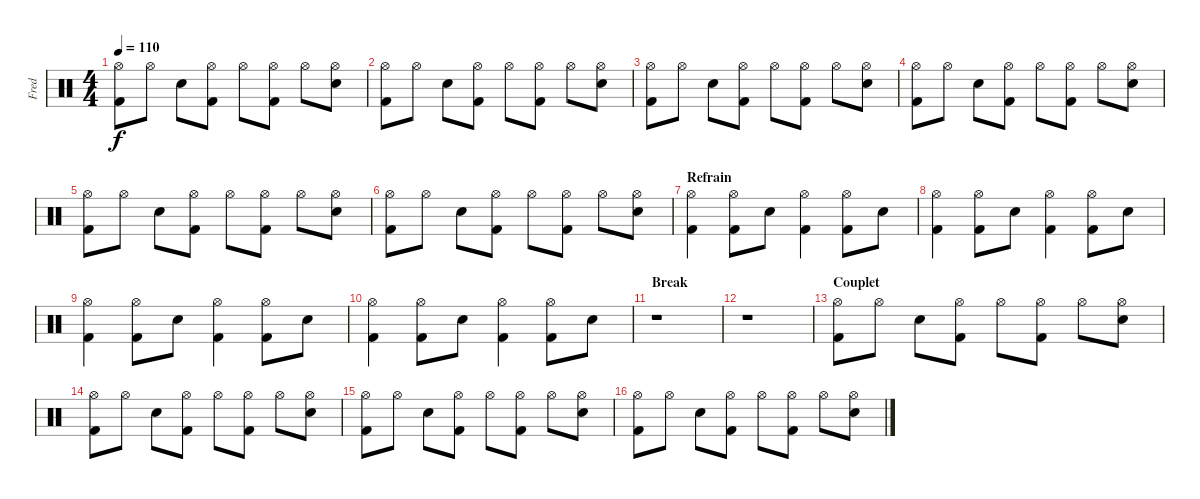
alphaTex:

\track ("Fred" "Fred") {instrument percussion}
\staff {score}
\articulation defaults
\ts (4 4)
\tempo 110
\clef neutral
\ks c
("Hi-Hat (open)" "Kick (hit) 2").8{dy f} "Hi-Hat (open)".8 "Electric Snare (hit)".8 ("Hi-Hat (open)" "Kick (hit) 2").8 "Hi-Hat (open)".8 ("Hi-Hat (open)" "Kick (hit) 2").8 "Hi-Hat (open)".8 ("Hi-Hat (open)" "Electric Snare (hit)").8 |
("Hi-Hat (open)" "Kick (hit) 2").8 "Hi-Hat (open)".8 "Electric Snare (hit)".8 ("Hi-Hat (open)" "Kick (hit) 2").8 "Hi-Hat (open)".8 ("Hi-Hat (open)" "Kick (hit) 2").8 "Hi-Hat (open)".8 ("Hi-Hat (open)" "Electric Snare (hit)").8 |
("Hi-Hat (open)" "Kick (hit) 2").8 "Hi-Hat (open)".8 "Electric Snare (hit)".8 ("Hi-Hat (open)" "Kick (hit) 2").8 "Hi-Hat (open)".8 ("Hi-Hat (open)" "Kick (hit) 2").8 "Hi-Hat (open)".8 ("Hi-Hat (open)" "Electric Snare (hit)").8 |
("Hi-Hat (open)" "Kick (hit) 2").8 "Hi-Hat (open)".8 "Electric Snare (hit)".8 ("Hi-Hat (open)" "Kick (hit) 2").8 "Hi-Hat (open)".8 ("Hi-Hat (open)" "Kick (hit) 2").8 "Hi-Hat (open)".8 ("Hi-Hat (open)" "Electric Snare (hit)").8 |
("Hi-Hat (open)" "Kick (hit) 2").8 "Hi-Hat (open)".8 "Electric Snare (hit)".8 ("Hi-Hat (open)" "Kick (hit) 2").8 "Hi-Hat (open)".8 ("Hi-Hat (open)" "Kick (hit) 2").8 "Hi-Hat (open)".8 ("Hi-Hat (open)" "Electric Snare (hit)").8 |
("Hi-Hat (open)" "Kick (hit) 2").8 "Hi-Hat (open)".8 "Electric Snare (hit)".8 ("Hi-Hat (open)" "Kick (hit) 2").8 "Hi-Hat (open)".8 ("Hi-Hat (open)" "Kick (hit) 2").8 "Hi-Hat (open)".8 ("Hi-Hat (open)" "Electric Snare (hit)").8 |
\section ("" "Refrain")
("Hi-Hat (open)" "Kick (hit) 2").4 ("Hi-Hat (open)" "Kick (hit) 2").8 "Electric Snare (hit)".8 ("Hi-Hat (open)" "Kick (hit) 2").4 ("Hi-Hat (open)" "Kick (hit) 2").8 "Electric Snare (hit)".8 |
("Hi-Hat (open)" "Kick (hit) 2").4 ("Hi-Hat (open)" "Kick (hit) 2").8 "Electric Snare (hit)".8 ("Hi-Hat (open)" "Kick (hit) 2").4 ("Hi-Hat (open)" "Kick (hit) 2").8 "Electric Snare (hit)".8 |
("Hi-Hat (open)" "Kick (hit) 2").4 ("Hi-Hat (open)" "Kick (hit) 2").8 "Electric Snare (hit)".8 ("Hi-Hat (open)" "Kick (hit) 2").4 ("Hi-Hat (open)" "Kick (hit) 2").8 "Electric Snare (hit)".8 |
("Hi-Hat (open)" "Kick (hit) 2").4 ("Hi-Hat (open)" "Kick (hit) 2").8 "Electric Snare (hit)".8 ("Hi-Hat (open)" "Kick (hit) 2").4 ("Hi-Hat (open)" "Kick (hit) 2").8 "Electric Snare (hit)".8 |
\section ("" "Break")
r.1 |
r.1 |
\section ("" "Couplet")
("Hi-Hat (open)" "Kick (hit) 2").8 "Hi-Hat (open)".8 "Electric Snare (hit)".8 ("Hi-Hat (open)" "Kick (hit) 2").8 "Hi-Hat (open)".8 ("Hi-Hat (open)" "Kick (hit) 2").8 "Hi-Hat (open)".8 ("Hi-Hat (open)" "Electric Snare (hit)").8 |
("Hi-Hat (open)" "Kick (hit) 2").8 "Hi-Hat (open)".8 "Electric Snare (hit)".8 ("Hi-Hat (open)" "Kick (hit) 2").8 "Hi-Hat (open)".8 ("Hi-Hat (open)" "Kick (hit) 2").8 "Hi-Hat (open)".8 ("Hi-Hat (open)" "Electric Snare (hit)").8 |
("Hi-Hat (open)" "Kick (hit) 2").8 "Hi-Hat (open)".8 "Electric Snare (hit)".8 ("Hi-Hat (open)" "Kick (hit) 2").8 "Hi-Hat (open)".8 ("Hi-Hat (open)" "Kick (hit) 2").8 "Hi-Hat (open)".8 ("Hi-Hat (open)" "Electric Snare (hit)").8 |
("Hi-Hat (open)" "Kick (hit) 2").8 "Hi-Hat (open)".8 "Electric Snare (hit)".8 ("Hi-Hat (open)" "Kick (hit) 2").8 "Hi-Hat (open)".8 ("Hi-Hat (open)" "Kick (hit) 2").8 "Hi-Hat (open)".8 ("Hi-Hat (open)" "Electric Snare (hit)").8
